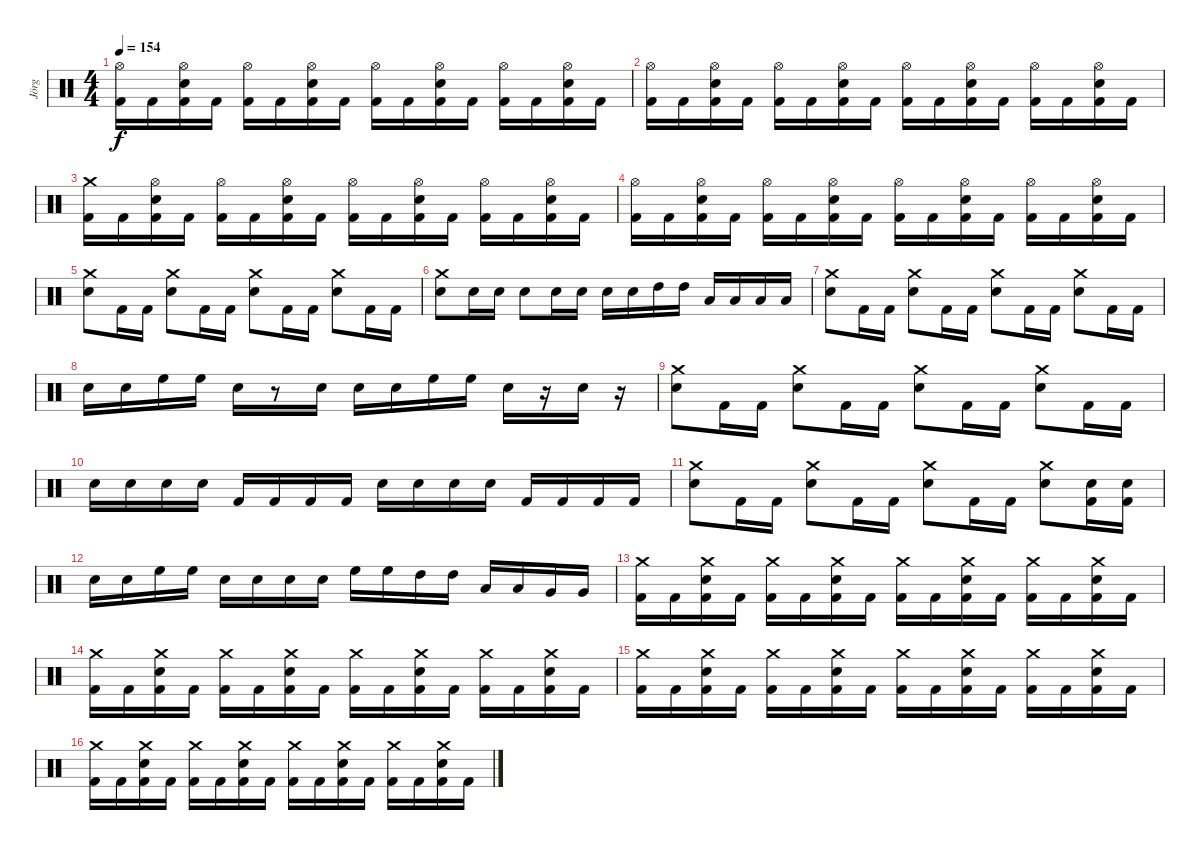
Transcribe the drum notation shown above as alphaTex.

\track ("Jörg" "Jörg") {instrument percussion}
\staff {score}
\articulation defaults
\ts (4 4)
\tempo 154
\clef neutral
\ks c
("Hi-Hat (open)" "Kick (hit) 2").16{dy f} "Kick (hit) 2".16 ("Snare (hit) 2" "Hi-Hat (open)" "Kick (hit) 2").16 "Kick (hit) 2".16 ("Hi-Hat (open)" "Kick (hit) 2").16 "Kick (hit) 2".16 ("Snare (hit) 2" "Hi-Hat (open)" "Kick (hit) 2").16 "Kick (hit) 2".16 ("Hi-Hat (open)" "Kick (hit) 2").16 "Kick (hit) 2".16 ("Snare (hit) 2" "Hi-Hat (open)" "Kick (hit) 2").16 "Kick (hit) 2".16 ("Hi-Hat (open)" "Kick (hit) 2").16 "Kick (hit) 2".16 ("Snare (hit) 2" "Hi-Hat (open)" "Kick (hit) 2").16 "Kick (hit) 2".16 |
("Hi-Hat (open)" "Kick (hit) 2").16 "Kick (hit) 2".16 ("Snare (hit) 2" "Hi-Hat (open)" "Kick (hit) 2").16 "Kick (hit) 2".16 ("Hi-Hat (open)" "Kick (hit) 2").16 "Kick (hit) 2".16 ("Snare (hit) 2" "Hi-Hat (open)" "Kick (hit) 2").16 "Kick (hit) 2".16 ("Hi-Hat (open)" "Kick (hit) 2").16 "Kick (hit) 2".16 ("Snare (hit) 2" "Hi-Hat (open)" "Kick (hit) 2").16 "Kick (hit) 2".16 ("Hi-Hat (open)" "Kick (hit) 2").16 "Kick (hit) 2".16 ("Snare (hit) 2" "Hi-Hat (open)" "Kick (hit) 2").16 "Kick (hit) 2".16 |
("Crash medium (hit)" "Kick (hit) 2").16 "Kick (hit) 2".16 ("Snare (hit) 2" "Hi-Hat (open)" "Kick (hit) 2").16 "Kick (hit) 2".16 ("Hi-Hat (open)" "Kick (hit) 2").16 "Kick (hit) 2".16 ("Snare (hit) 2" "Hi-Hat (open)" "Kick (hit) 2").16 "Kick (hit) 2".16 ("Hi-Hat (open)" "Kick (hit) 2").16 "Kick (hit) 2".16 ("Snare (hit) 2" "Hi-Hat (open)" "Kick (hit) 2").16 "Kick (hit) 2".16 ("Hi-Hat (open)" "Kick (hit) 2").16 "Kick (hit) 2".16 ("Snare (hit) 2" "Hi-Hat (open)" "Kick (hit) 2").16 "Kick (hit) 2".16 |
("Hi-Hat (open)" "Kick (hit) 2").16 "Kick (hit) 2".16 ("Snare (hit) 2" "Hi-Hat (open)" "Kick (hit) 2").16 "Kick (hit) 2".16 ("Hi-Hat (open)" "Kick (hit) 2").16 "Kick (hit) 2".16 ("Snare (hit) 2" "Hi-Hat (open)" "Kick (hit) 2").16 "Kick (hit) 2".16 ("Hi-Hat (open)" "Kick (hit) 2").16 "Kick (hit) 2".16 ("Snare (hit) 2" "Hi-Hat (open)" "Kick (hit) 2").16 "Kick (hit) 2".16 ("Hi-Hat (open)" "Kick (hit) 2").16 "Kick (hit) 2".16 ("Snare (hit) 2" "Hi-Hat (open)" "Kick (hit) 2").16 "Kick (hit) 2".16 |
("Snare (hit) 2" "Crash medium (hit)").8 "Kick (hit) 2".16 "Kick (hit) 2".16 ("Snare (hit) 2" "Crash medium (hit)").8 "Kick (hit) 2".16 "Kick (hit) 2".16 ("Snare (hit) 2" "Crash medium (hit)").8 "Kick (hit) 2".16 "Kick (hit) 2".16 ("Snare (hit) 2" "Crash medium (hit)").8 "Kick (hit) 2".16 "Kick (hit) 2".16 |
("Snare (hit) 2" "Crash medium (hit)").8 "Snare (hit) 2".16 "Snare (hit) 2".16 "Snare (hit) 2".8 "Snare (hit) 2".16 "Snare (hit) 2".16 "Snare (hit) 2".16 "Snare (hit) 2".16 "High Tom (hit)".16 "High Tom (hit)".16 "Low Tom (hit)".16 "Low Tom (hit)".16 "Low Tom (hit)".16 "Low Tom (hit)".16 |
("Snare (hit) 2" "Crash medium (hit)").8 "Kick (hit) 2".16 "Kick (hit) 2".16 ("Snare (hit) 2" "Crash medium (hit)").8 "Kick (hit) 2".16 "Kick (hit) 2".16 ("Snare (hit) 2" "Crash medium (hit)").8 "Kick (hit) 2".16 "Kick (hit) 2".16 ("Snare (hit) 2" "Crash medium (hit)").8 "Kick (hit) 2".16 "Kick (hit) 2".16 |
"Snare (hit) 2".16 "Snare (hit) 2".16 "High Floor Tom (hit)".16 "High Floor Tom (hit)".16 "Snare (hit) 2".16 r.8 "Snare (hit) 2".16 "Snare (hit) 2".16 "Snare (hit) 2".16 "High Floor Tom (hit)".16 "High Floor Tom (hit)".16 "Snare (hit) 2".16 r.16 "Snare (hit) 2".16 r.16 |
("Snare (hit) 2" "Crash medium (hit)").8 "Kick (hit) 2".16 "Kick (hit) 2".16 ("Snare (hit) 2" "Crash medium (hit)").8 "Kick (hit) 2".16 "Kick (hit) 2".16 ("Snare (hit) 2" "Crash medium (hit)").8 "Kick (hit) 2".16 "Kick (hit) 2".16 ("Snare (hit) 2" "Crash medium (hit)").8 "Kick (hit) 2".16 "Kick (hit) 2".16 |
"Snare (hit) 2".16 "Snare (hit) 2".16 "Snare (hit) 2".16 "Snare (hit) 2".16 "Kick (hit) 2".16 "Kick (hit) 2".16 "Kick (hit) 2".16 "Kick (hit) 2".16 "Snare (hit) 2".16 "Snare (hit) 2".16 "Snare (hit) 2".16 "Snare (hit) 2".16 "Kick (hit) 2".16 "Kick (hit) 2".16 "Kick (hit) 2".16 "Kick (hit) 2".16 |
("Snare (hit) 2" "Crash medium (hit)").8 "Kick (hit) 2".16 "Kick (hit) 2".16 ("Snare (hit) 2" "Crash medium (hit)").8 "Kick (hit) 2".16 "Kick (hit) 2".16 ("Snare (hit) 2" "Crash medium (hit)").8 "Kick (hit) 2".16 "Kick (hit) 2".16 ("Snare (hit) 2" "Crash medium (hit)").8 ("Snare (hit) 2" "Kick (hit) 2").16 ("Snare (hit) 2" "Kick (hit) 2").16 |
"Snare (hit) 2".16 "Snare (hit) 2".16 "High Floor Tom (hit)".16 "High Floor Tom (hit)".16 "Snare (hit) 2".16 "Snare (hit) 2".16 "Snare (hit) 2".16 "Snare (hit) 2".16 "High Floor Tom (hit)".16 "High Floor Tom (hit)".16 "High Tom (hit)".16 "High Tom (hit)".16 "Low Tom (hit)".16 "Low Tom (hit)".16 "Very Low Tom (hit)".16 "Very Low Tom (hit)".16 |
("Crash medium (hit)" "Kick (hit) 2").16 "Kick (hit) 2".16 ("Snare (hit) 2" "Crash medium (hit)" "Kick (hit) 2").16 "Kick (hit) 2".16 ("Crash medium (hit)" "Kick (hit) 2").16 "Kick (hit) 2".16 ("Snare (hit) 2" "Crash medium (hit)" "Kick (hit) 2").16 "Kick (hit) 2".16 ("Crash medium (hit)" "Kick (hit) 2").16 "Kick (hit) 2".16 ("Snare (hit) 2" "Crash medium (hit)" "Kick (hit) 2").16 "Kick (hit) 2".16 ("Crash medium (hit)" "Kick (hit) 2").16 "Kick (hit) 2".16 ("Snare (hit) 2" "Crash medium (hit)" "Kick (hit) 2").16 "Kick (hit) 2".16 |
("Crash medium (hit)" "Kick (hit) 2").16 "Kick (hit) 2".16 ("Snare (hit) 2" "Crash medium (hit)" "Kick (hit) 2").16 "Kick (hit) 2".16 ("Crash medium (hit)" "Kick (hit) 2").16 "Kick (hit) 2".16 ("Snare (hit) 2" "Crash medium (hit)" "Kick (hit) 2").16 "Kick (hit) 2".16 ("Crash medium (hit)" "Kick (hit) 2").16 "Kick (hit) 2".16 ("Snare (hit) 2" "Crash medium (hit)" "Kick (hit) 2").16 "Kick (hit) 2".16 ("Crash medium (hit)" "Kick (hit) 2").16 "Kick (hit) 2".16 ("Snare (hit) 2" "Crash medium (hit)" "Kick (hit) 2").16 "Kick (hit) 2".16 |
("Crash medium (hit)" "Kick (hit) 2").16 "Kick (hit) 2".16 ("Snare (hit) 2" "Crash medium (hit)" "Kick (hit) 2").16 "Kick (hit) 2".16 ("Crash medium (hit)" "Kick (hit) 2").16 "Kick (hit) 2".16 ("Snare (hit) 2" "Crash medium (hit)" "Kick (hit) 2").16 "Kick (hit) 2".16 ("Crash medium (hit)" "Kick (hit) 2").16 "Kick (hit) 2".16 ("Snare (hit) 2" "Crash medium (hit)" "Kick (hit) 2").16 "Kick (hit) 2".16 ("Crash medium (hit)" "Kick (hit) 2").16 "Kick (hit) 2".16 ("Snare (hit) 2" "Crash medium (hit)" "Kick (hit) 2").16 "Kick (hit) 2".16 |
("Crash medium (hit)" "Kick (hit) 2").16 "Kick (hit) 2".16 ("Snare (hit) 2" "Crash medium (hit)" "Kick (hit) 2").16 "Kick (hit) 2".16 ("Crash medium (hit)" "Kick (hit) 2").16 "Kick (hit) 2".16 ("Snare (hit) 2" "Crash medium (hit)" "Kick (hit) 2").16 "Kick (hit) 2".16 ("Crash medium (hit)" "Kick (hit) 2").16 "Kick (hit) 2".16 ("Snare (hit) 2" "Crash medium (hit)" "Kick (hit) 2").16 "Kick (hit) 2".16 ("Crash medium (hit)" "Kick (hit) 2").16 "Kick (hit) 2".16 ("Snare (hit) 2" "Crash medium (hit)" "Kick (hit) 2").16 "Kick (hit) 2".16
